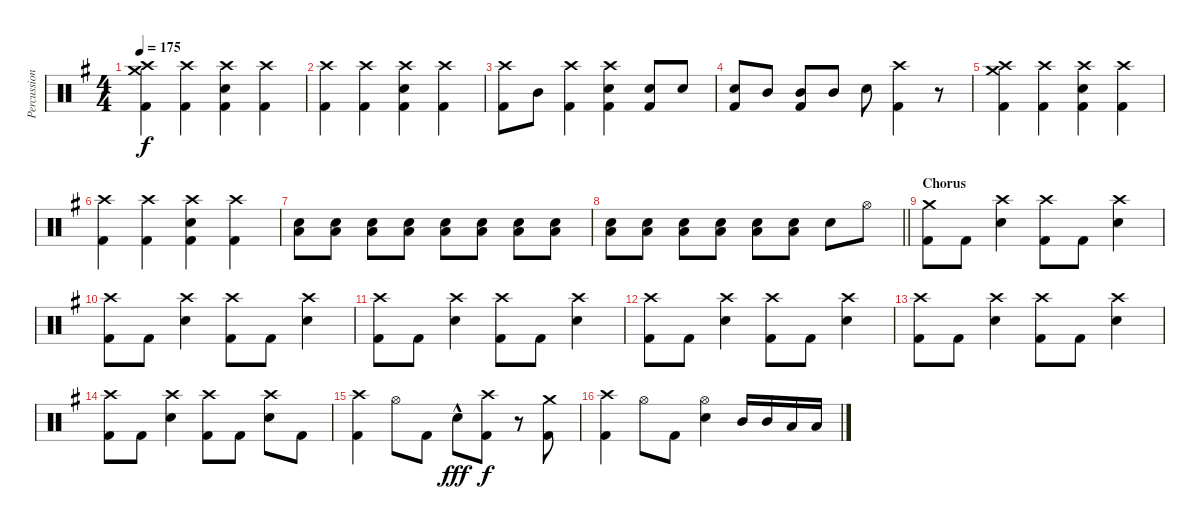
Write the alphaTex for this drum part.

\track ("Percussion" "Percussion") {instrument percussion}
\staff {score}
\articulation defaults
\ts (4 4)
\tempo 175
\clef neutral
\ks g
("Crash medium (hit)" "Crash high (hit)" "Kick (hit) 2").4{dy f} ("Crash high (hit)" "Kick (hit) 2").4 ("Crash high (hit)" "Snare (hit) 2" "Kick (hit) 2").4 ("Crash high (hit)" "Kick (hit) 2").4 |
("Crash high (hit)" "Kick (hit) 2").4 ("Crash high (hit)" "Kick (hit) 2").4 ("Crash high (hit)" "Snare (hit) 2" "Kick (hit) 2").4 ("Crash high (hit)" "Kick (hit) 2").4 |
("Crash high (hit)" "Kick (hit) 2").8 "Mid Tom (hit)".8 ("Crash high (hit)" "Kick (hit) 2").4 ("Crash high (hit)" "Snare (hit) 2" "Kick (hit) 2").4 ("Snare (hit) 2" "Kick (hit) 2").8 "Snare (hit) 2".8 |
("Snare (hit) 2" "Kick (hit) 2").8 "Mid Tom (hit)".8 ("Mid Tom (hit)" "Kick (hit) 2").8 "Mid Tom (hit)".8 "Snare (hit) 2".8 ("Crash high (hit)" "Kick (hit) 2").4 r.8 |
("Crash medium (hit)" "Crash high (hit)" "Kick (hit) 2").4 ("Crash high (hit)" "Kick (hit) 2").4 ("Crash high (hit)" "Snare (hit) 2" "Kick (hit) 2").4 ("Crash high (hit)" "Kick (hit) 2").4 |
("Crash high (hit)" "Kick (hit) 2").4 ("Crash high (hit)" "Kick (hit) 2").4 ("Crash high (hit)" "Snare (hit) 2" "Kick (hit) 2").4 ("Crash high (hit)" "Kick (hit) 2").4 |
("Snare (hit) 2" "Low Floor Tom (hit)").8 ("Snare (hit) 2" "Low Floor Tom (hit)").8 ("Snare (hit) 2" "Low Floor Tom (hit)").8 ("Snare (hit) 2" "Low Floor Tom (hit)").8 ("Snare (hit) 2" "Low Floor Tom (hit)").8 ("Snare (hit) 2" "Low Floor Tom (hit)").8 ("Snare (hit) 2" "Low Floor Tom (hit)").8 ("Snare (hit) 2" "Low Floor Tom (hit)").8 |
\barLineRight lightlight
("Snare (hit) 2" "Low Floor Tom (hit)").8 ("Snare (hit) 2" "Low Floor Tom (hit)").8 ("Snare (hit) 2" "Low Floor Tom (hit)").8 ("Snare (hit) 2" "Low Floor Tom (hit)").8 ("Snare (hit) 2" "Low Floor Tom (hit)").8 ("Snare (hit) 2" "Low Floor Tom (hit)").8 "Snare (hit) 2".8 "Hi-Hat (open)".8 |
\section ("" "Chorus")
("Crash medium (hit)" "Kick (hit) 2").8 "Kick (hit) 2".8 ("Crash high (hit)" "Snare (hit) 2").4 ("Crash high (hit)" "Kick (hit) 2").8 "Kick (hit) 2".8 ("Crash high (hit)" "Snare (hit) 2").4 |
("Crash high (hit)" "Kick (hit) 2").8 "Kick (hit) 2".8 ("Crash high (hit)" "Snare (hit) 2").4 ("Crash high (hit)" "Kick (hit) 2").8 "Kick (hit) 2".8 ("Crash high (hit)" "Snare (hit) 2").4 |
("Crash high (hit)" "Kick (hit) 2").8 "Kick (hit) 2".8 ("Crash high (hit)" "Snare (hit) 2").4 ("Crash high (hit)" "Kick (hit) 2").8 "Kick (hit) 2".8 ("Crash high (hit)" "Snare (hit) 2").4 |
("Crash high (hit)" "Kick (hit) 2").8 "Kick (hit) 2".8 ("Crash high (hit)" "Snare (hit) 2").4 ("Crash high (hit)" "Kick (hit) 2").8 "Kick (hit) 2".8 ("Crash high (hit)" "Snare (hit) 2").4 |
("Crash high (hit)" "Kick (hit) 2").8 "Kick (hit) 2".8 ("Crash high (hit)" "Snare (hit) 2").4 ("Crash high (hit)" "Kick (hit) 2").8 "Kick (hit) 2".8 ("Crash high (hit)" "Snare (hit) 2").4 |
("Crash high (hit)" "Kick (hit) 2").8 "Kick (hit) 2".8 ("Crash high (hit)" "Snare (hit) 2").4 ("Crash high (hit)" "Kick (hit) 2").8 "Kick (hit) 2".8 ("Crash high (hit)" "Snare (hit) 2").8 "Kick (hit) 2".8 |
("Crash high (hit)" "Kick (hit) 2").4 "Hi-Hat (open)".8 "Kick (hit) 2".8 "Snare (hit) 2"{hac}.8{dy fff} ("Crash high (hit)" "Kick (hit) 2").8{dy f} r.8 ("Crash medium (hit)" "Kick (hit) 2").8 |
("Crash high (hit)" "Kick (hit) 2").4 "Hi-Hat (open)".8 "Kick (hit) 2".8 ("Hi-Hat (open)" "Snare (hit) 2").4 "Mid Tom (hit)".16 "Mid Tom (hit)".16 "Low Floor Tom (hit)".16 "Low Floor Tom (hit)".16
